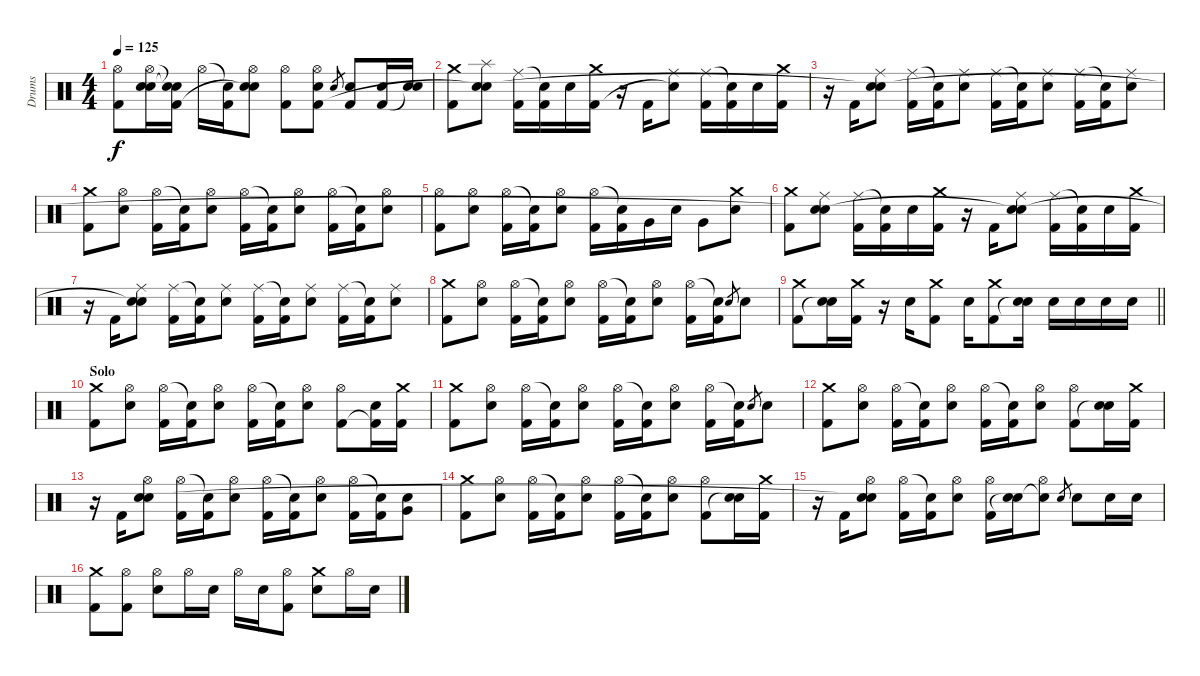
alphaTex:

\track ("Drums" "Drums") {instrument percussion}
\staff {score}
\articulation defaults
\ts (4 4)
\tempo 125
\clef neutral
\ks c
("Hi-Hat (open)" "Kick (hit) 2").8{dy f} ("Hi-Hat (open)" "Electric Snare (hit)" "Snare (hit)"{t}).16 ("Snare (hit)"{t} "Snare (hit)"{t} "Kick (hit) 2").16 "Hi-Hat (open)".16 ("Snare (hit)"{t} "Kick (hit) 2").16 ("Hi-Hat (open)" "Electric Snare (hit)" "Snare (hit)"{t}).8 ("Hi-Hat (open)" "Kick (hit) 2").8 ("Hi-Hat (open)" "Electric Snare (hit)" "Kick (hit) 2").8 "Electric Snare (hit)".8{gr} ("Electric Snare (hit)" "Kick (hit) 2").8 ("Electric Snare (hit)" "Kick (hit) 2").16 ("Electric Snare (hit)" "Snare (hit)"{t}).16 |
("Crash medium (hit)" "Kick (hit) 2").8 ("Splash (hit)" "Electric Snare (hit)" "Snare (hit)"{t}).8 ("Ride (middle)" "Kick (hit) 2").16 ("Snare (hit)"{t} "Kick (hit) 2").16 "Electric Snare (hit)".16 ("Crash medium (hit)" "Kick (hit) 2").16 r.16 "Kick (hit) 2".16 ("Ride (middle)" "Snare (hit)"{t}).8 ("Ride (middle)" "Kick (hit) 2").16 ("Snare (hit)"{t} "Kick (hit) 2").16 "Electric Snare (hit)".16 ("Crash medium (hit)" "Kick (hit) 2").16 |
r.16 "Kick (hit) 2".16 ("Ride (middle)" "Electric Snare (hit)" "Snare (hit)"{t}).8 ("Ride (middle)" "Kick (hit) 2").16 ("Snare (hit)"{t} "Kick (hit) 2").16 ("Ride (middle)" "Electric Snare (hit)").8 ("Ride (middle)" "Kick (hit) 2").16 ("Snare (hit)"{t} "Kick (hit) 2").16 ("Ride (middle)" "Electric Snare (hit)").8 ("Ride (middle)" "Kick (hit) 2").16 ("Snare (hit)"{t} "Kick (hit) 2").16 ("Ride (middle)" "Electric Snare (hit)").8 |
("Crash medium (hit)" "Kick (hit) 2").8 ("Hi-Hat (open)" "Electric Snare (hit)").8 ("Hi-Hat (open)" "Kick (hit) 2").16 ("Snare (hit)"{t} "Kick (hit) 2").16 ("Hi-Hat (open)" "Electric Snare (hit)").8 ("Hi-Hat (open)" "Kick (hit) 2").16 ("Snare (hit)"{t} "Kick (hit) 2").16 ("Hi-Hat (open)" "Electric Snare (hit)").8 ("Hi-Hat (open)" "Kick (hit) 2").16 ("Snare (hit)"{t} "Kick (hit) 2").16 ("Hi-Hat (open)" "Electric Snare (hit)").8 |
("Hi-Hat (open)" "Kick (hit) 2").8 ("Hi-Hat (open)" "Electric Snare (hit)").8 ("Hi-Hat (open)" "Kick (hit) 2").16 ("Snare (hit)"{t} "Kick (hit) 2").16 ("Hi-Hat (open)" "Electric Snare (hit)").8 ("Hi-Hat (open)" "Kick (hit) 2").16 ("Snare (hit)"{t} "Kick (hit) 2").16 "Very Low Tom (hit)".16 "Electric Snare (hit)".16 "Very Low Tom (hit)".8 ("Crash medium (hit)" "Electric Snare (hit)").8 |
("Crash medium (hit)" "Kick (hit) 2").8 ("Ride (middle)" "Electric Snare (hit)" "Snare (hit)"{t}).8 ("Ride (middle)" "Kick (hit) 2").16 ("Snare (hit)"{t} "Kick (hit) 2").16 "Electric Snare (hit)".16 ("Crash medium (hit)" "Kick (hit) 2").16 r.16 "Kick (hit) 2".16 ("Ride (middle)" "Electric Snare (hit)" "Snare (hit)"{t}).8 ("Ride (middle)" "Kick (hit) 2").16 ("Snare (hit)"{t} "Kick (hit) 2").16 "Electric Snare (hit)".16 ("Crash medium (hit)" "Kick (hit) 2").16 |
r.16 "Kick (hit) 2".16 ("Ride (middle)" "Electric Snare (hit)" "Snare (hit)"{t}).8 ("Ride (middle)" "Kick (hit) 2").16 ("Snare (hit)"{t} "Kick (hit) 2").16 ("Ride (middle)" "Electric Snare (hit)").8 ("Ride (middle)" "Kick (hit) 2").16 ("Snare (hit)"{t} "Kick (hit) 2").16 ("Ride (middle)" "Electric Snare (hit)").8 ("Ride (middle)" "Kick (hit) 2").16 ("Snare (hit)"{t} "Kick (hit) 2").16 ("Ride (middle)" "Electric Snare (hit)").8 |
("Crash medium (hit)" "Kick (hit) 2").8 ("Hi-Hat (open)" "Electric Snare (hit)").8 ("Hi-Hat (open)" "Kick (hit) 2").16 ("Snare (hit)"{t} "Kick (hit) 2").16 ("Hi-Hat (open)" "Electric Snare (hit)").8 ("Hi-Hat (open)" "Kick (hit) 2").16 ("Snare (hit)"{t} "Kick (hit) 2").16 ("Hi-Hat (open)" "Electric Snare (hit)").8 ("Hi-Hat (open)" "Kick (hit) 2").16 ("Snare (hit)"{t} "Kick (hit) 2").16 "Electric Snare (hit)".8{gr} "Electric Snare (hit)".8 |
\barLineRight lightlight
("Crash medium (hit)" "Kick (hit) 2").8 ("Electric Snare (hit)" "Snare (hit)"{t}).16 ("Crash medium (hit)" "Kick (hit) 2").16 r.16 "Electric Snare (hit)".16 ("Crash medium (hit)" "Kick (hit) 2").8 "Electric Snare (hit)".16 ("Crash medium (hit)" "Kick (hit) 2").8 ("Electric Snare (hit)" "Snare (hit)"{t}).16 "Electric Snare (hit)".16 "Electric Snare (hit)".16 "Electric Snare (hit)".16 "Electric Snare (hit)".16 |
\section ("" "Solo")
("Crash medium (hit)" "Kick (hit) 2").8 ("Hi-Hat (open)" "Electric Snare (hit)").8 ("Hi-Hat (open)" "Kick (hit) 2").16 ("Snare (hit)"{t} "Kick (hit) 2").16 ("Hi-Hat (open)" "Electric Snare (hit)").8 ("Hi-Hat (open)" "Kick (hit) 2").16 ("Snare (hit)"{t} "Kick (hit) 2").16 ("Hi-Hat (open)" "Electric Snare (hit)").8 ("Hi-Hat (open)" "Kick (hit) 2").8 ("Electric Snare (hit)" "Kick (hit) 2"{t}).16 ("Crash medium (hit)" "Kick (hit) 2").16 |
("Crash medium (hit)" "Kick (hit) 2").8 ("Hi-Hat (open)" "Electric Snare (hit)").8 ("Hi-Hat (open)" "Kick (hit) 2").16 ("Snare (hit)"{t} "Kick (hit) 2").16 ("Hi-Hat (open)" "Electric Snare (hit)").8 ("Hi-Hat (open)" "Kick (hit) 2").16 ("Snare (hit)"{t} "Kick (hit) 2").16 ("Hi-Hat (open)" "Electric Snare (hit)").8 ("Hi-Hat (open)" "Kick (hit) 2").16 ("Snare (hit)"{t} "Kick (hit) 2").16 "Electric Snare (hit)".8{gr} "Electric Snare (hit)".8 |
("Crash medium (hit)" "Kick (hit) 2").8 ("Hi-Hat (open)" "Electric Snare (hit)").8 ("Hi-Hat (open)" "Kick (hit) 2").16 ("Snare (hit)"{t} "Kick (hit) 2").16 ("Hi-Hat (open)" "Electric Snare (hit)").8 ("Hi-Hat (open)" "Kick (hit) 2").16 ("Snare (hit)"{t} "Kick (hit) 2").16 ("Hi-Hat (open)" "Electric Snare (hit)").8 ("Hi-Hat (open)" "Kick (hit) 2").8 ("Electric Snare (hit)" "Snare (hit)"{t}).16 ("Crash medium (hit)" "Kick (hit) 2").16 |
r.16 "Kick (hit) 2".16 ("Hi-Hat (open)" "Electric Snare (hit)" "Snare (hit)").8 ("Hi-Hat (open)" "Kick (hit) 2").16 ("Snare (hit)"{t} "Kick (hit) 2").16 ("Hi-Hat (open)" "Electric Snare (hit)").8 ("Hi-Hat (open)" "Kick (hit) 2").16 ("Snare (hit)"{t} "Kick (hit) 2").16 ("Hi-Hat (open)" "Electric Snare (hit)").8 ("Hi-Hat (open)" "Kick (hit) 2").16 ("Snare (hit)"{t} "Kick (hit) 2").16 ("Electric Snare (hit)" "Very Low Tom (hit)").8 |
("Crash medium (hit)" "Kick (hit) 2").8 ("Hi-Hat (open)" "Electric Snare (hit)").8 ("Hi-Hat (open)" "Kick (hit) 2").16 ("Snare (hit)"{t} "Kick (hit) 2").16 ("Hi-Hat (open)" "Electric Snare (hit)").8 ("Hi-Hat (open)" "Kick (hit) 2").16 ("Snare (hit)"{t} "Kick (hit) 2").16 ("Hi-Hat (open)" "Electric Snare (hit)").8 ("Hi-Hat (open)" "Kick (hit) 2").8 ("Electric Snare (hit)" "Snare (hit)"{t}).16 ("Crash medium (hit)" "Kick (hit) 2").16 |
r.16 "Kick (hit) 2".16 ("Hi-Hat (open)" "Electric Snare (hit)" "Snare (hit)"{t}).8 ("Hi-Hat (open)" "Kick (hit) 2").16 ("Snare (hit)"{t} "Kick (hit) 2").16 ("Hi-Hat (open)" "Electric Snare (hit)").8 ("Hi-Hat (open)" "Kick (hit) 2").16 ("Electric Snare (hit)" "Snare (hit)"{t}).16 ("Hi-Hat (open)" "Snare (hit)"{t}).8 "Electric Snare (hit)".8{gr} "Electric Snare (hit)".8 "Electric Snare (hit)".16 "Electric Snare (hit)".16 |
("Crash medium (hit)" "Kick (hit) 2").8 ("Hi-Hat (open)" "Kick (hit) 2").8 ("Hi-Hat (open)" "Electric Snare (hit)").8 "Hi-Hat (open)".16 "Electric Snare (hit)".16 "Hi-Hat (open)".16 "Electric Snare (hit)".16 ("Hi-Hat (open)" "Kick (hit) 2").8 ("Crash medium (hit)" "Electric Snare (hit)").8 "Hi-Hat (open)".16 "Electric Snare (hit)".16
